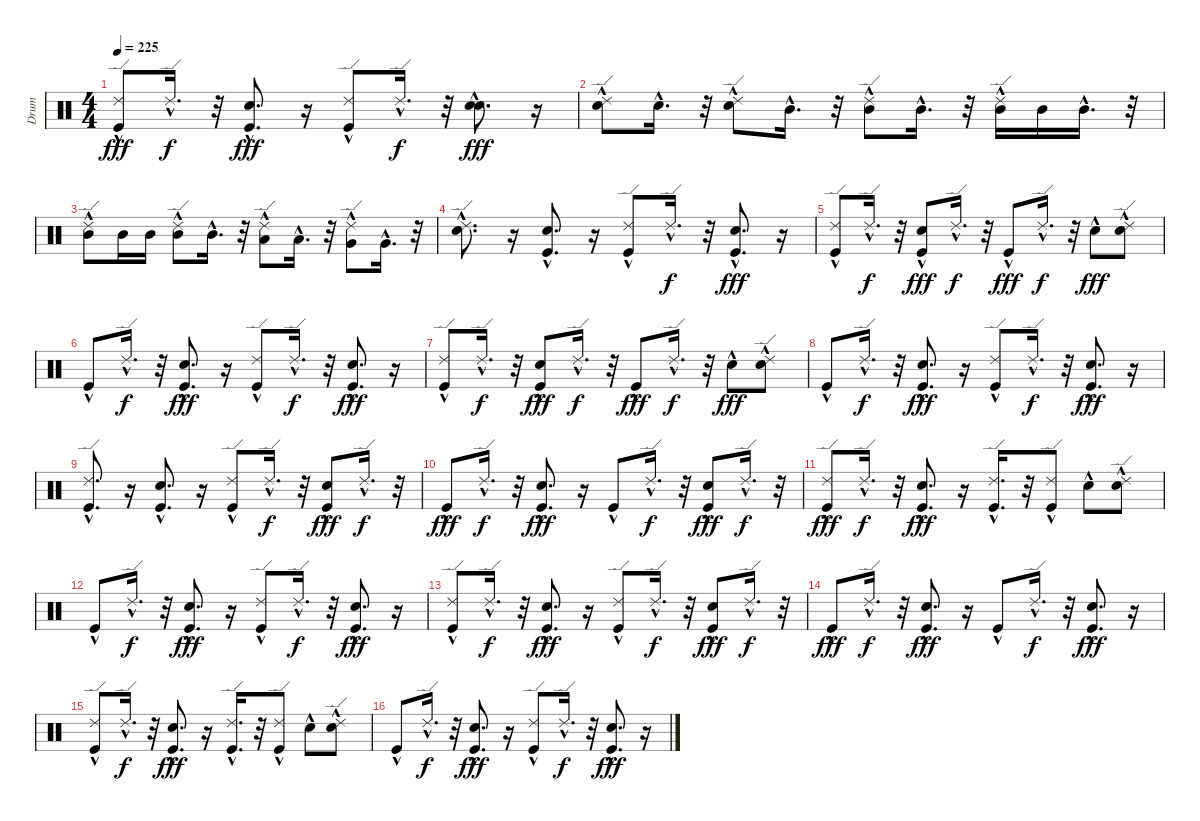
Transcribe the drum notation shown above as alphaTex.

\track ("Drum" "Drum") {instrument percussion}
\staff {score}
\articulation defaults
\ts (4 4)
\tempo 225
\clef neutral
\ks c
("Kick (hit)"{hac} "Ride (edge) 2"{hac}).8{dy fff} "Ride (edge) 2"{hac}.16{d dy f} r.32 ("Kick (hit)"{hac} "Electric Snare (hit)"{hac}).8{d dy fff} r.16 ("Kick (hit)"{hac} "Ride (edge) 2"{hac}).8 "Ride (edge) 2"{hac}.16{d dy f} r.32 ("Snare (hit) 2"{hac} "Electric Snare (hit)"{hac}).8{d dy fff} r.16 |
("Electric Snare (hit)"{hac} "Ride (edge) 2"{hac}).8 "Electric Snare (hit)"{hac}.16{d} r.32 ("Electric Snare (hit)"{hac} "Ride (edge) 2"{hac}).8 "Mid Tom (hit)"{hac}.16{d} r.32 ("Mid Tom (hit)"{hac} "Ride (edge) 2"{hac}).8 "Mid Tom (hit)"{hac}.16{d} r.32 ("Mid Tom (hit)" "Ride (edge) 2"{hac}).16 "Mid Tom (hit)".16 "Mid Tom (hit)"{hac}.16{d} r.32 |
("Mid Tom (hit)"{hac} "Ride (edge) 2"{hac}).8 "Mid Tom (hit)".16 "Mid Tom (hit)".16 ("Mid Tom (hit)"{hac} "Ride (edge) 2"{hac}).8 "Mid Tom (hit)"{hac}.16{d} r.32 ("Low Tom (hit)"{hac} "Ride (edge) 2"{hac}).8 "Low Tom (hit)"{hac}.16{d} r.32 ("Very Low Tom (hit)"{hac} "Ride (edge) 2"{hac}).8 "Very Low Tom (hit)"{hac}.16{d} r.32 |
("Snare (hit) 2"{hac} "Ride (edge) 2"{hac}).8{d} r.16 ("Kick (hit)"{hac} "Electric Snare (hit)"{hac}).8{d} r.16 ("Kick (hit)"{hac} "Ride (edge) 2"{hac}).8 "Ride (edge) 2"{hac}.16{d dy f} r.32 ("Kick (hit)"{hac} "Electric Snare (hit)"{hac}).8{d dy fff} r.16 |
("Kick (hit)"{hac} "Ride (edge) 2"{hac}).8 "Ride (edge) 2"{hac}.16{d dy f} r.32 ("Kick (hit)"{hac} "Electric Snare (hit)"{hac}).8{dy fff} "Ride (edge) 2"{hac}.16{d dy f} r.32 "Kick (hit)"{hac}.8{dy fff} "Ride (edge) 2"{hac}.16{d dy f} r.32 "Electric Snare (hit)"{hac}.8{dy fff} ("Snare (hit) 2" "Ride (edge) 2"{hac}).8 |
"Kick (hit)"{hac}.8 "Ride (edge) 2"{hac}.16{d dy f} r.32 ("Kick (hit)"{hac} "Electric Snare (hit)"{hac}).8{d dy fff} r.16 ("Kick (hit)"{hac} "Ride (edge) 2"{hac}).8 "Ride (edge) 2"{hac}.16{d dy f} r.32 ("Kick (hit)"{hac} "Electric Snare (hit)"{hac}).8{d dy fff} r.16 |
("Kick (hit)"{hac} "Ride (edge) 2"{hac}).8 "Ride (edge) 2"{hac}.16{d dy f} r.32 ("Kick (hit)"{hac} "Electric Snare (hit)"{hac}).8{dy fff} "Ride (edge) 2"{hac}.16{d dy f} r.32 "Kick (hit)"{hac}.8{dy fff} "Ride (edge) 2"{hac}.16{d dy f} r.32 "Electric Snare (hit)"{hac}.8{dy fff} ("Snare (hit) 2" "Ride (edge) 2"{hac}).8 |
"Kick (hit)"{hac}.8 "Ride (edge) 2"{hac}.16{d dy f} r.32 ("Kick (hit)"{hac} "Electric Snare (hit)"{hac}).8{d dy fff} r.16 ("Kick (hit)"{hac} "Ride (edge) 2"{hac}).8 "Ride (edge) 2"{hac}.16{d dy f} r.32 ("Kick (hit)"{hac} "Electric Snare (hit)"{hac}).8{d dy fff} r.16 |
("Kick (hit)"{hac} "Ride (edge) 2"{hac}).8{d} r.16 ("Kick (hit)"{hac} "Electric Snare (hit)"{hac}).8{d} r.16 ("Kick (hit)"{hac} "Ride (edge) 2"{hac}).8 "Ride (edge) 2"{hac}.16{d dy f} r.32 ("Kick (hit)"{hac} "Electric Snare (hit)"{hac}).8{dy fff} "Ride (edge) 2"{hac}.16{d dy f} r.32 |
"Kick (hit)"{hac}.8{dy fff} "Ride (edge) 2"{hac}.16{d dy f} r.32 ("Kick (hit)"{hac} "Electric Snare (hit)"{hac}).8{d dy fff} r.16 "Kick (hit)"{hac}.8 "Ride (edge) 2"{hac}.16{d dy f} r.32 ("Kick (hit)"{hac} "Electric Snare (hit)"{hac}).8{dy fff} "Ride (edge) 2"{hac}.16{d dy f} r.32 |
("Kick (hit)"{hac} "Ride (edge) 2"{hac}).8{dy fff} "Ride (edge) 2"{hac}.16{d dy f} r.32 ("Kick (hit)"{hac} "Electric Snare (hit)"{hac}).8{d dy fff} r.16 ("Kick (hit)"{hac} "Ride (edge) 2"{hac}).16{d} r.32 ("Kick (hit)"{hac} "Ride (edge) 2"{hac}).8 "Electric Snare (hit)"{hac}.8 ("Snare (hit) 2" "Ride (edge) 2"{hac}).8 |
"Kick (hit)"{hac}.8 "Ride (edge) 2"{hac}.16{d dy f} r.32 ("Kick (hit)"{hac} "Electric Snare (hit)"{hac}).8{d dy fff} r.16 ("Kick (hit)"{hac} "Ride (edge) 2"{hac}).8 "Ride (edge) 2"{hac}.16{d dy f} r.32 ("Kick (hit)"{hac} "Electric Snare (hit)"{hac}).8{d dy fff} r.16 |
("Kick (hit)"{hac} "Ride (edge) 2"{hac}).8 "Ride (edge) 2"{hac}.16{d dy f} r.32 ("Kick (hit)"{hac} "Electric Snare (hit)"{hac}).8{d dy fff} r.16 ("Kick (hit)"{hac} "Ride (edge) 2"{hac}).8 "Ride (edge) 2"{hac}.16{d dy f} r.32 ("Kick (hit)"{hac} "Electric Snare (hit)"{hac}).8{dy fff} "Ride (edge) 2"{hac}.16{d dy f} r.32 |
"Kick (hit)"{hac}.8{dy fff} "Ride (edge) 2"{hac}.16{d dy f} r.32 ("Kick (hit)"{hac} "Electric Snare (hit)"{hac}).8{d dy fff} r.16 "Kick (hit)"{hac}.8 "Ride (edge) 2"{hac}.16{d dy f} r.32 ("Kick (hit)"{hac} "Electric Snare (hit)"{hac}).8{d dy fff} r.16 |
("Kick (hit)"{hac} "Ride (edge) 2"{hac}).8 "Ride (edge) 2"{hac}.16{d dy f} r.32 ("Kick (hit)"{hac} "Electric Snare (hit)"{hac}).8{d dy fff} r.16 ("Kick (hit)"{hac} "Ride (edge) 2"{hac}).16{d} r.32 ("Kick (hit)"{hac} "Ride (edge) 2"{hac}).8 "Electric Snare (hit)"{hac}.8 ("Snare (hit) 2" "Ride (edge) 2"{hac}).8 |
"Kick (hit)"{hac}.8 "Ride (edge) 2"{hac}.16{d dy f} r.32 ("Kick (hit)"{hac} "Electric Snare (hit)"{hac}).8{d dy fff} r.16 ("Kick (hit)"{hac} "Ride (edge) 2"{hac}).8 "Ride (edge) 2"{hac}.16{d dy f} r.32 ("Kick (hit)"{hac} "Electric Snare (hit)"{hac}).8{d dy fff} r.16
